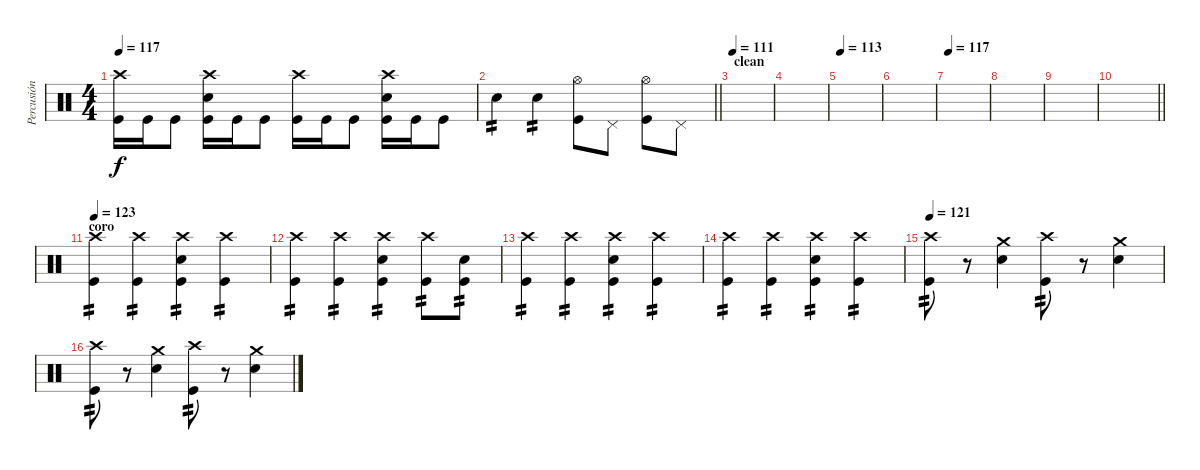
\track ("Percusión" "Percusión") {instrument percussion}
\staff {score}
\articulation defaults
\ts (4 4)
\tempo 117
\clef neutral
\ks aminor
("Crash high (hit)" "Kick (hit)").16{dy f} "Kick (hit)".16 "Kick (hit)".8 ("Crash high (hit)" "Electric Snare (hit)" "Kick (hit)").16 "Kick (hit)".16 "Kick (hit)".8 ("Crash high (hit)" "Kick (hit)").16 "Kick (hit)".16 "Kick (hit)".8 ("Crash high (hit)" "Electric Snare (hit)" "Kick (hit)").16 "Kick (hit)".16 "Kick (hit)".8 |
\barLineRight lightlight "Electric Snare (hit)".4{tp 2} "Electric Snare (hit)".4{tp 2}
("Hi-Hat (open)" "Kick (hit)").8 "Pedal Hi-Hat (hit)".8 ("Hi-Hat (open)" "Kick (hit)").8 "Pedal Hi-Hat (hit)".8 |
\section ("" "clean")
\tempo 111
|
|
\tempo 113
|
|
\tempo 117
|
|
|
\barLineRight lightlight
|
\section ("" "coro")
\tempo 123
("Crash high (hit)" "Kick (hit)").4{tp 2} ("Crash high (hit)" "Kick (hit)").4{tp 2} ("Crash high (hit)" "Electric Snare (hit)" "Kick (hit)").4{tp 2} ("Crash high (hit)" "Kick (hit)").4{tp 2} |
("Crash high (hit)" "Kick (hit)").4{tp 2} ("Crash high (hit)" "Kick (hit)").4{tp 2} ("Crash high (hit)" "Electric Snare (hit)" "Kick (hit)").4{tp 2} ("Crash high (hit)" "Kick (hit)").8{tp 2} ("Electric Snare (hit)" "Kick (hit)").8{tp 2} |
("Crash high (hit)" "Kick (hit)").4{tp 2} ("Crash high (hit)" "Kick (hit)").4{tp 2} ("Crash high (hit)" "Electric Snare (hit)" "Kick (hit)").4{tp 2} ("Crash high (hit)" "Kick (hit)").4{tp 2} |
("Crash high (hit)" "Kick (hit)").4{tp 2} ("Crash high (hit)" "Kick (hit)").4{tp 2} ("Crash high (hit)" "Electric Snare (hit)" "Kick (hit)").4{tp 2} ("Crash high (hit)" "Kick (hit)").4{tp 2} |
\tempo 121
("Crash high (hit)" "Kick (hit)").8{tp 2} r.8 ("Crash medium (hit)" "Electric Snare (hit)").4 ("Crash high (hit)" "Kick (hit)").8{tp 2} r.8 ("Crash medium (hit)" "Electric Snare (hit)").4 |
("Crash high (hit)" "Kick (hit)").8{tp 2} r.8 ("Crash medium (hit)" "Electric Snare (hit)").4 ("Crash high (hit)" "Kick (hit)").8{tp 2} r.8 ("Crash medium (hit)" "Electric Snare (hit)").4
